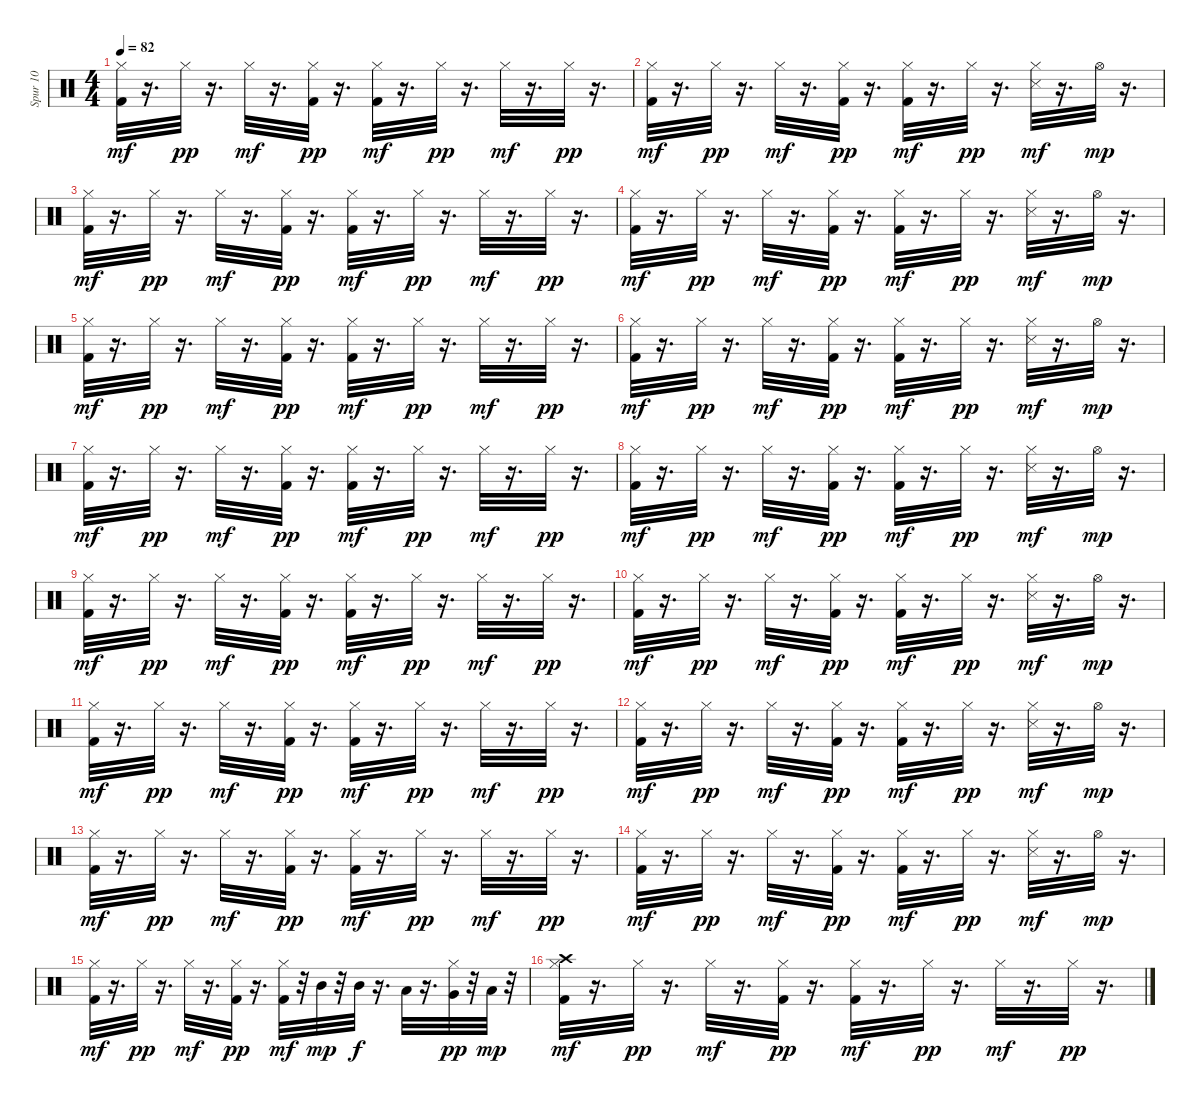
\track ("Spur 10" "Spur 10") {instrument percussion}
\staff {score}
\articulation defaults
\ts (4 4)
\tempo 82
\clef neutral
\ks c
("Kick (hit) 2" "Hi-Hat (closed)").32{dy mf} r.16{d} "Hi-Hat (closed)".32{dy pp} r.16{d} "Hi-Hat (closed)".32{dy mf} r.16{d} ("Kick (hit) 2" "Hi-Hat (closed)").32{dy pp} r.16{d} ("Kick (hit) 2" "Hi-Hat (closed)").32{dy mf} r.16{d} "Hi-Hat (closed)".32{dy pp} r.16{d} "Hi-Hat (closed)".32{dy mf} r.16{d} "Hi-Hat (closed)".32{dy pp} r.16{d} |
("Kick (hit) 2" "Hi-Hat (closed)").32{dy mf} r.16{d} "Hi-Hat (closed)".32{dy pp} r.16{d} "Hi-Hat (closed)".32{dy mf} r.16{d} ("Kick (hit) 2" "Hi-Hat (closed)").32{dy pp} r.16{d} ("Kick (hit) 2" "Hi-Hat (closed)").32{dy mf} r.16{d} "Hi-Hat (closed)".32{dy pp} r.16{d} ("Snare (side stick) 3" "Hi-Hat (closed)").32{dy mf} r.16{d} "Hi-Hat (open)".32{dy mp} r.16{d} |
("Kick (hit) 2" "Hi-Hat (closed)").32{dy mf} r.16{d} "Hi-Hat (closed)".32{dy pp} r.16{d} "Hi-Hat (closed)".32{dy mf} r.16{d} ("Kick (hit) 2" "Hi-Hat (closed)").32{dy pp} r.16{d} ("Kick (hit) 2" "Hi-Hat (closed)").32{dy mf} r.16{d} "Hi-Hat (closed)".32{dy pp} r.16{d} "Hi-Hat (closed)".32{dy mf} r.16{d} "Hi-Hat (closed)".32{dy pp} r.16{d} |
("Kick (hit) 2" "Hi-Hat (closed)").32{dy mf} r.16{d} "Hi-Hat (closed)".32{dy pp} r.16{d} "Hi-Hat (closed)".32{dy mf} r.16{d} ("Kick (hit) 2" "Hi-Hat (closed)").32{dy pp} r.16{d} ("Kick (hit) 2" "Hi-Hat (closed)").32{dy mf} r.16{d} "Hi-Hat (closed)".32{dy pp} r.16{d} ("Snare (side stick) 3" "Hi-Hat (closed)").32{dy mf} r.16{d} "Hi-Hat (open)".32{dy mp} r.16{d} |
("Kick (hit) 2" "Hi-Hat (closed)").32{dy mf} r.16{d} "Hi-Hat (closed)".32{dy pp} r.16{d} "Hi-Hat (closed)".32{dy mf} r.16{d} ("Kick (hit) 2" "Hi-Hat (closed)").32{dy pp} r.16{d} ("Kick (hit) 2" "Hi-Hat (closed)").32{dy mf} r.16{d} "Hi-Hat (closed)".32{dy pp} r.16{d} "Hi-Hat (closed)".32{dy mf} r.16{d} "Hi-Hat (closed)".32{dy pp} r.16{d} |
("Kick (hit) 2" "Hi-Hat (closed)").32{dy mf} r.16{d} "Hi-Hat (closed)".32{dy pp} r.16{d} "Hi-Hat (closed)".32{dy mf} r.16{d} ("Kick (hit) 2" "Hi-Hat (closed)").32{dy pp} r.16{d} ("Kick (hit) 2" "Hi-Hat (closed)").32{dy mf} r.16{d} "Hi-Hat (closed)".32{dy pp} r.16{d} ("Snare (side stick) 3" "Hi-Hat (closed)").32{dy mf} r.16{d} "Hi-Hat (open)".32{dy mp} r.16{d} |
("Kick (hit) 2" "Hi-Hat (closed)").32{dy mf} r.16{d} "Hi-Hat (closed)".32{dy pp} r.16{d} "Hi-Hat (closed)".32{dy mf} r.16{d} ("Kick (hit) 2" "Hi-Hat (closed)").32{dy pp} r.16{d} ("Kick (hit) 2" "Hi-Hat (closed)").32{dy mf} r.16{d} "Hi-Hat (closed)".32{dy pp} r.16{d} "Hi-Hat (closed)".32{dy mf} r.16{d} "Hi-Hat (closed)".32{dy pp} r.16{d} |
("Kick (hit) 2" "Hi-Hat (closed)").32{dy mf} r.16{d} "Hi-Hat (closed)".32{dy pp} r.16{d} "Hi-Hat (closed)".32{dy mf} r.16{d} ("Kick (hit) 2" "Hi-Hat (closed)").32{dy pp} r.16{d} ("Kick (hit) 2" "Hi-Hat (closed)").32{dy mf} r.16{d} "Hi-Hat (closed)".32{dy pp} r.16{d} ("Snare (side stick) 3" "Hi-Hat (closed)").32{dy mf} r.16{d} "Hi-Hat (open)".32{dy mp} r.16{d} |
("Kick (hit) 2" "Hi-Hat (closed)").32{dy mf} r.16{d} "Hi-Hat (closed)".32{dy pp} r.16{d} "Hi-Hat (closed)".32{dy mf} r.16{d} ("Kick (hit) 2" "Hi-Hat (closed)").32{dy pp} r.16{d} ("Kick (hit) 2" "Hi-Hat (closed)").32{dy mf} r.16{d} "Hi-Hat (closed)".32{dy pp} r.16{d} "Hi-Hat (closed)".32{dy mf} r.16{d} "Hi-Hat (closed)".32{dy pp} r.16{d} |
("Kick (hit) 2" "Hi-Hat (closed)").32{dy mf} r.16{d} "Hi-Hat (closed)".32{dy pp} r.16{d} "Hi-Hat (closed)".32{dy mf} r.16{d} ("Kick (hit) 2" "Hi-Hat (closed)").32{dy pp} r.16{d} ("Kick (hit) 2" "Hi-Hat (closed)").32{dy mf} r.16{d} "Hi-Hat (closed)".32{dy pp} r.16{d} ("Snare (side stick) 3" "Hi-Hat (closed)").32{dy mf} r.16{d} "Hi-Hat (open)".32{dy mp} r.16{d} |
("Kick (hit) 2" "Hi-Hat (closed)").32{dy mf} r.16{d} "Hi-Hat (closed)".32{dy pp} r.16{d} "Hi-Hat (closed)".32{dy mf} r.16{d} ("Kick (hit) 2" "Hi-Hat (closed)").32{dy pp} r.16{d} ("Kick (hit) 2" "Hi-Hat (closed)").32{dy mf} r.16{d} "Hi-Hat (closed)".32{dy pp} r.16{d} "Hi-Hat (closed)".32{dy mf} r.16{d} "Hi-Hat (closed)".32{dy pp} r.16{d} |
("Kick (hit) 2" "Hi-Hat (closed)").32{dy mf} r.16{d} "Hi-Hat (closed)".32{dy pp} r.16{d} "Hi-Hat (closed)".32{dy mf} r.16{d} ("Kick (hit) 2" "Hi-Hat (closed)").32{dy pp} r.16{d} ("Kick (hit) 2" "Hi-Hat (closed)").32{dy mf} r.16{d} "Hi-Hat (closed)".32{dy pp} r.16{d} ("Snare (side stick) 3" "Hi-Hat (closed)").32{dy mf} r.16{d} "Hi-Hat (open)".32{dy mp} r.16{d} |
("Kick (hit) 2" "Hi-Hat (closed)").32{dy mf} r.16{d} "Hi-Hat (closed)".32{dy pp} r.16{d} "Hi-Hat (closed)".32{dy mf} r.16{d} ("Kick (hit) 2" "Hi-Hat (closed)").32{dy pp} r.16{d} ("Kick (hit) 2" "Hi-Hat (closed)").32{dy mf} r.16{d} "Hi-Hat (closed)".32{dy pp} r.16{d} "Hi-Hat (closed)".32{dy mf} r.16{d} "Hi-Hat (closed)".32{dy pp} r.16{d} |
("Kick (hit) 2" "Hi-Hat (closed)").32{dy mf} r.16{d} "Hi-Hat (closed)".32{dy pp} r.16{d} "Hi-Hat (closed)".32{dy mf} r.16{d} ("Kick (hit) 2" "Hi-Hat (closed)").32{dy pp} r.16{d} ("Kick (hit) 2" "Hi-Hat (closed)").32{dy mf} r.16{d} "Hi-Hat (closed)".32{dy pp} r.16{d} ("Snare (side stick) 3" "Hi-Hat (closed)").32{dy mf} r.16{d} "Hi-Hat (open)".32{dy mp} r.16{d} |
("Kick (hit) 2" "Hi-Hat (closed)").32{dy mf} r.16{d} "Hi-Hat (closed)".32{dy pp} r.16{d} "Hi-Hat (closed)".32{dy mf} r.16{d} ("Kick (hit) 2" "Hi-Hat (closed)").32{dy pp} r.16{d} ("Kick (hit) 2" "Hi-Hat (closed)").32{dy mf} r.32 "Mid Tom (hit)".32{dy mp} r.32 "Mid Tom (hit)".32{dy f} r.16{d} "Low Tom (hit)".32 r.16{d} ("Hi-Hat (closed)" "Very Low Tom (hit)").32{dy pp} r.32 "Low Floor Tom (hit)".32{dy mp} r.32 |
("Crash high (hit)" "Kick (hit) 2" "Hi-Hat (closed)").32{dy mf} r.16{d} "Hi-Hat (closed)".32{dy pp} r.16{d} "Hi-Hat (closed)".32{dy mf} r.16{d} ("Kick (hit) 2" "Hi-Hat (closed)").32{dy pp} r.16{d} ("Kick (hit) 2" "Hi-Hat (closed)").32{dy mf} r.16{d} "Hi-Hat (closed)".32{dy pp} r.16{d} "Hi-Hat (closed)".32{dy mf} r.16{d} "Hi-Hat (closed)".32{dy pp} r.16{d}
